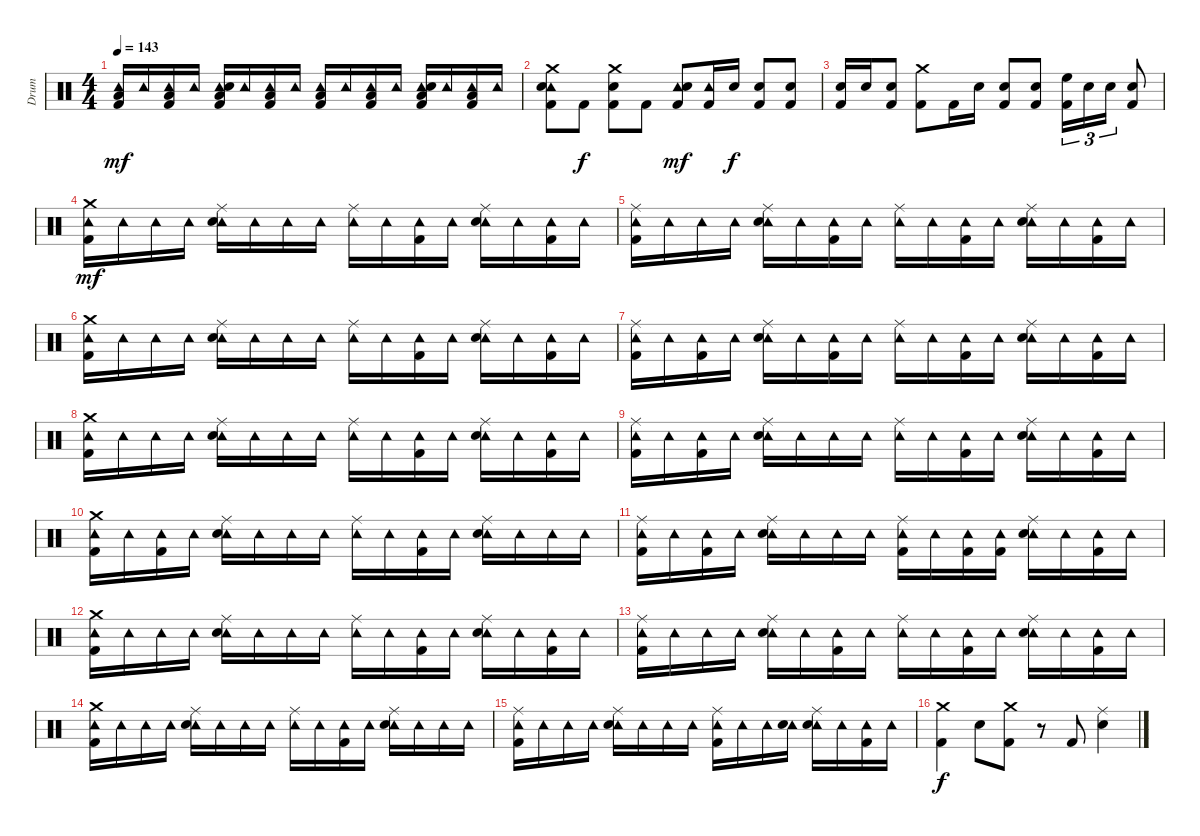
\track ("Drum" "Drum") {instrument percussion}
\staff {score}
\articulation defaults
\ts (4 4)
\tempo 143
\clef neutral
\ks c
("Tambourine (hit)" "Low Floor Tom (hit)" "Kick (hit) 2").16{dy mf} "Tambourine (hit)".16 ("Tambourine (hit)" "Low Floor Tom (hit)" "Kick (hit) 2").16 "Tambourine (hit)".16 ("Tambourine (hit)" "Snare (hit) 2" "Low Floor Tom (hit)" "Kick (hit) 2").16 "Tambourine (hit)".16 ("Tambourine (hit)" "Low Floor Tom (hit)" "Kick (hit) 2").16 "Tambourine (hit)".16 ("Tambourine (hit)" "Low Floor Tom (hit)" "Kick (hit) 2").16 "Tambourine (hit)".16 ("Tambourine (hit)" "Low Floor Tom (hit)" "Kick (hit) 2").16 "Tambourine (hit)".16 ("Tambourine (hit)" "Snare (hit) 2" "Low Floor Tom (hit)" "Kick (hit) 2").16 "Tambourine (hit)".16 ("Tambourine (hit)" "Low Floor Tom (hit)" "Kick (hit) 2").16 "Tambourine (hit)".16 |
("Tambourine (hit)" "Crash medium (hit)" "Snare (hit) 2" "Kick (hit) 2").8 "Kick (hit) 2".8{dy f} ("Crash medium (hit)" "Snare (hit) 2" "Kick (hit) 2").8 "Kick (hit) 2".8 ("Tambourine (hit)" "Snare (hit) 2" "Kick (hit) 2").8{dy mf} ("Tambourine (hit)" "Kick (hit) 2").16 "Snare (hit) 2".16{dy f} ("Snare (hit) 2" "Kick (hit) 2").8 ("Snare (hit) 2" "Kick (hit) 2").8 |
("Snare (hit) 2" "Kick (hit) 2").16 "Snare (hit) 2".16 ("Snare (hit) 2" "Kick (hit) 2").8 ("Crash medium (hit)" "Kick (hit) 2").8 "Kick (hit) 2".16 "Snare (hit) 2".16 ("Snare (hit) 2" "Kick (hit) 2").8 ("Snare (hit) 2" "Kick (hit) 2").8 ("High Floor Tom (hit)" "Kick (hit) 2").16{tu (3 2)} "Snare (hit) 2".16{tu (3 2)} "Snare (hit) 2".16{tu (3 2)} ("Snare (hit) 2" "Kick (hit) 2").8 |
("Tambourine (hit)" "Crash medium (hit)" "Kick (hit) 2").16{dy mf} "Tambourine (hit)".16 "Tambourine (hit)".16 "Tambourine (hit)".16 ("Tambourine (hit)" "Ride (middle)" "Snare (hit) 2").16 "Tambourine (hit)".16 "Tambourine (hit)".16 "Tambourine (hit)".16 ("Tambourine (hit)" "Ride (middle)").16 "Tambourine (hit)".16 ("Tambourine (hit)" "Kick (hit) 2").16 "Tambourine (hit)".16 ("Tambourine (hit)" "Ride (middle)" "Snare (hit) 2").16 "Tambourine (hit)".16 ("Tambourine (hit)" "Kick (hit) 2").16 "Tambourine (hit)".16 |
("Tambourine (hit)" "Ride (middle)" "Kick (hit) 2").16 "Tambourine (hit)".16 "Tambourine (hit)".16 "Tambourine (hit)".16 ("Tambourine (hit)" "Ride (middle)" "Snare (hit) 2").16 "Tambourine (hit)".16 ("Tambourine (hit)" "Kick (hit) 2").16 "Tambourine (hit)".16 ("Tambourine (hit)" "Ride (middle)").16 "Tambourine (hit)".16 ("Tambourine (hit)" "Kick (hit) 2").16 "Tambourine (hit)".16 ("Tambourine (hit)" "Ride (middle)" "Snare (hit) 2").16 "Tambourine (hit)".16 ("Tambourine (hit)" "Kick (hit) 2").16 "Tambourine (hit)".16 |
("Tambourine (hit)" "Crash medium (hit)" "Kick (hit) 2").16 "Tambourine (hit)".16 "Tambourine (hit)".16 "Tambourine (hit)".16 ("Tambourine (hit)" "Ride (middle)" "Snare (hit) 2").16 "Tambourine (hit)".16 "Tambourine (hit)".16 "Tambourine (hit)".16 ("Tambourine (hit)" "Ride (middle)").16 "Tambourine (hit)".16 ("Tambourine (hit)" "Kick (hit) 2").16 "Tambourine (hit)".16 ("Tambourine (hit)" "Ride (middle)" "Snare (hit) 2").16 "Tambourine (hit)".16 ("Tambourine (hit)" "Kick (hit) 2").16 "Tambourine (hit)".16 |
("Tambourine (hit)" "Ride (middle)" "Kick (hit) 2").16 "Tambourine (hit)".16 ("Tambourine (hit)" "Kick (hit) 2").16 "Tambourine (hit)".16 ("Tambourine (hit)" "Ride (middle)" "Snare (hit) 2").16 "Tambourine (hit)".16 ("Tambourine (hit)" "Kick (hit) 2").16 "Tambourine (hit)".16 ("Tambourine (hit)" "Ride (middle)").16 "Tambourine (hit)".16 ("Tambourine (hit)" "Kick (hit) 2").16 "Tambourine (hit)".16 ("Tambourine (hit)" "Ride (middle)" "Snare (hit) 2").16 "Tambourine (hit)".16 ("Tambourine (hit)" "Kick (hit) 2").16 "Tambourine (hit)".16 |
("Tambourine (hit)" "Crash medium (hit)" "Kick (hit) 2").16 "Tambourine (hit)".16 "Tambourine (hit)".16 "Tambourine (hit)".16 ("Tambourine (hit)" "Ride (middle)" "Snare (hit) 2").16 "Tambourine (hit)".16 "Tambourine (hit)".16 "Tambourine (hit)".16 ("Tambourine (hit)" "Ride (middle)").16 "Tambourine (hit)".16 ("Tambourine (hit)" "Kick (hit) 2").16 "Tambourine (hit)".16 ("Tambourine (hit)" "Ride (middle)" "Snare (hit) 2").16 "Tambourine (hit)".16 ("Tambourine (hit)" "Kick (hit) 2").16 "Tambourine (hit)".16 |
("Tambourine (hit)" "Ride (middle)" "Kick (hit) 2").16 "Tambourine (hit)".16 ("Tambourine (hit)" "Kick (hit) 2").16 "Tambourine (hit)".16 ("Tambourine (hit)" "Ride (middle)" "Snare (hit) 2").16 "Tambourine (hit)".16 "Tambourine (hit)".16 "Tambourine (hit)".16 ("Tambourine (hit)" "Ride (middle)").16 "Tambourine (hit)".16 ("Tambourine (hit)" "Kick (hit) 2").16 "Tambourine (hit)".16 ("Tambourine (hit)" "Ride (middle)" "Snare (hit) 2").16 "Tambourine (hit)".16 ("Tambourine (hit)" "Kick (hit) 2").16 "Tambourine (hit)".16 |
("Tambourine (hit)" "Crash medium (hit)" "Kick (hit) 2").16 "Tambourine (hit)".16 ("Tambourine (hit)" "Kick (hit) 2").16 "Tambourine (hit)".16 ("Tambourine (hit)" "Ride (middle)" "Snare (hit) 2").16 "Tambourine (hit)".16 "Tambourine (hit)".16 "Tambourine (hit)".16 ("Tambourine (hit)" "Ride (middle)").16 "Tambourine (hit)".16 ("Tambourine (hit)" "Kick (hit) 2").16 "Tambourine (hit)".16 ("Tambourine (hit)" "Ride (middle)" "Snare (hit) 2").16 "Tambourine (hit)".16 "Tambourine (hit)".16 "Tambourine (hit)".16 |
("Tambourine (hit)" "Ride (middle)" "Kick (hit) 2").16 "Tambourine (hit)".16 ("Tambourine (hit)" "Kick (hit) 2").16 "Tambourine (hit)".16 ("Tambourine (hit)" "Ride (middle)" "Snare (hit) 2").16 "Tambourine (hit)".16 "Tambourine (hit)".16 "Tambourine (hit)".16 ("Tambourine (hit)" "Ride (middle)" "Kick (hit) 2").16 "Tambourine (hit)".16 ("Tambourine (hit)" "Kick (hit) 2").16 ("Tambourine (hit)" "Kick (hit) 2").16 ("Tambourine (hit)" "Ride (middle)" "Snare (hit) 2").16 "Tambourine (hit)".16 ("Tambourine (hit)" "Kick (hit) 2").16 "Tambourine (hit)".16 |
("Tambourine (hit)" "Crash medium (hit)" "Kick (hit) 2").16 "Tambourine (hit)".16 "Tambourine (hit)".16 "Tambourine (hit)".16 ("Tambourine (hit)" "Ride (middle)" "Snare (hit) 2").16 "Tambourine (hit)".16 "Tambourine (hit)".16 "Tambourine (hit)".16 ("Tambourine (hit)" "Ride (middle)").16 "Tambourine (hit)".16 ("Tambourine (hit)" "Kick (hit) 2").16 "Tambourine (hit)".16 ("Tambourine (hit)" "Ride (middle)" "Snare (hit) 2").16 "Tambourine (hit)".16 ("Tambourine (hit)" "Kick (hit) 2").16 "Tambourine (hit)".16 |
("Tambourine (hit)" "Ride (middle)" "Kick (hit) 2").16 "Tambourine (hit)".16 "Tambourine (hit)".16 "Tambourine (hit)".16 ("Tambourine (hit)" "Ride (middle)" "Snare (hit) 2").16 "Tambourine (hit)".16 ("Tambourine (hit)" "Kick (hit) 2").16 "Tambourine (hit)".16 ("Tambourine (hit)" "Ride (middle)").16 "Tambourine (hit)".16 ("Tambourine (hit)" "Kick (hit) 2").16 "Tambourine (hit)".16 ("Tambourine (hit)" "Ride (middle)" "Snare (hit) 2").16 "Tambourine (hit)".16 ("Tambourine (hit)" "Kick (hit) 2").16 "Tambourine (hit)".16 |
("Tambourine (hit)" "Crash medium (hit)" "Kick (hit) 2").16 "Tambourine (hit)".16 "Tambourine (hit)".16 "Tambourine (hit)".16 ("Tambourine (hit)" "Ride (middle)" "Snare (hit) 2").16 "Tambourine (hit)".16 "Tambourine (hit)".16 "Tambourine (hit)".16 ("Tambourine (hit)" "Ride (middle)").16 "Tambourine (hit)".16 ("Tambourine (hit)" "Kick (hit) 2").16 "Tambourine (hit)".16 ("Tambourine (hit)" "Ride (middle)" "Snare (hit) 2").16 "Tambourine (hit)".16 "Tambourine (hit)".16 "Tambourine (hit)".16 |
("Tambourine (hit)" "Ride (middle)" "Kick (hit) 2").16 "Tambourine (hit)".16 "Tambourine (hit)".16 "Tambourine (hit)".16 ("Tambourine (hit)" "Ride (middle)" "Snare (hit) 2").16 "Tambourine (hit)".16 "Tambourine (hit)".16 "Tambourine (hit)".16 ("Tambourine (hit)" "Ride (middle)" "Kick (hit) 2").16 "Tambourine (hit)".16 "Tambourine (hit)".16 ("Tambourine (hit)" "Snare (hit) 2").16 ("Tambourine (hit)" "Ride (middle)" "Snare (hit) 2").16 "Tambourine (hit)".16 ("Tambourine (hit)" "Kick (hit) 2").16 "Tambourine (hit)".16 |
("Crash medium (hit)" "Kick (hit) 2").4{dy f} "Snare (hit) 2".8 ("Crash medium (hit)" "Kick (hit) 2").8 r.8 "Kick (hit) 2".8 ("Ride (middle)" "Snare (hit) 2").4
